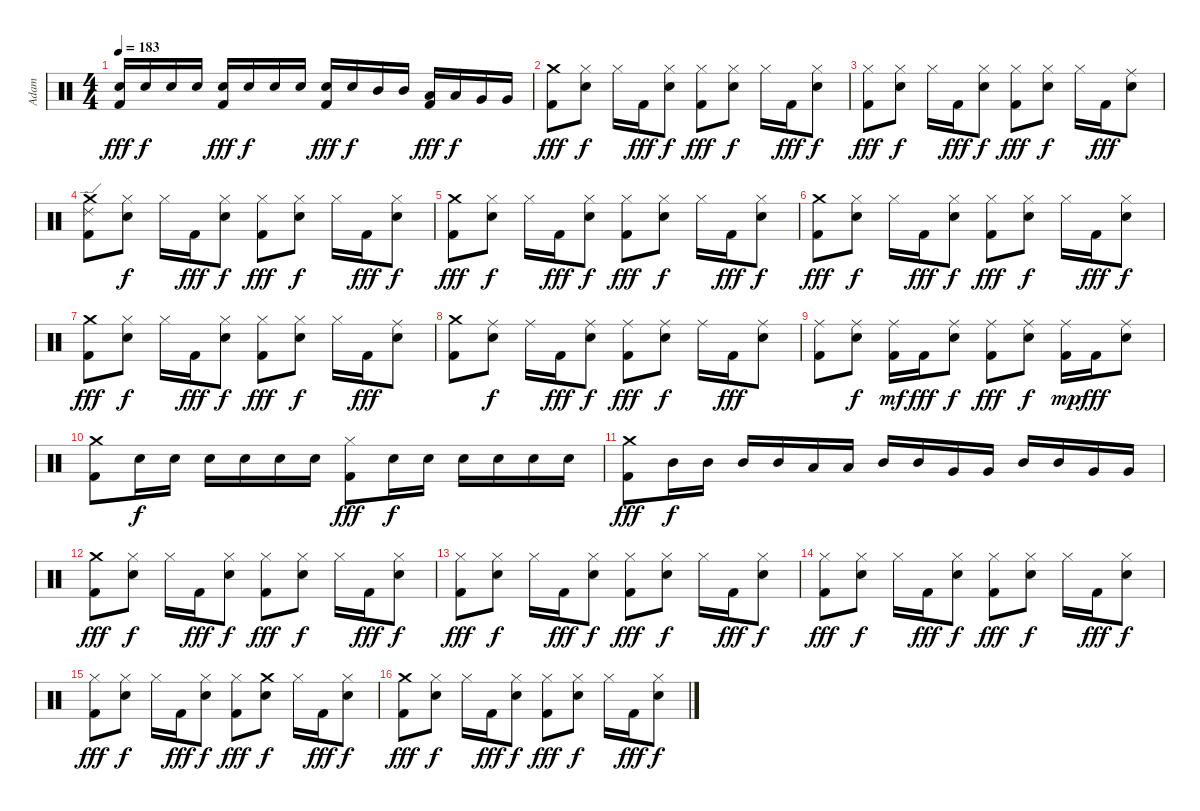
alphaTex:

\track ("Adam" "Adam") {instrument percussion}
\staff {score}
\articulation defaults
\ts (4 4)
\tempo 183
\clef neutral
\ks c
("Electric Snare (hit)" "Kick (hit) 2").16{dy fff} "Electric Snare (hit)".16{dy f} "Electric Snare (hit)".16 "Electric Snare (hit)".16 ("Electric Snare (hit)" "Kick (hit) 2").16{dy fff} "Electric Snare (hit)".16{dy f} "Electric Snare (hit)".16 "Electric Snare (hit)".16 ("Electric Snare (hit)" "Kick (hit) 2").16{dy fff} "Electric Snare (hit)".16{dy f} "Mid Tom (hit)".16 "Mid Tom (hit)".16 ("Low Tom (hit)" "Kick (hit) 2").16{dy fff} "Low Tom (hit)".16{dy f} "Very Low Tom (hit)".16 "Very Low Tom (hit)".16 |
("Crash medium (hit)" "Kick (hit) 2").8{dy fff} ("Hi-Hat (closed)" "Electric Snare (hit)").8{dy f} "Hi-Hat (closed)".16 "Kick (hit) 2".16{dy fff} ("Hi-Hat (closed)" "Electric Snare (hit)").8{dy f} ("Hi-Hat (closed)" "Kick (hit) 2").8{dy fff} ("Hi-Hat (closed)" "Electric Snare (hit)").8{dy f} "Hi-Hat (closed)".16 "Kick (hit) 2".16{dy fff} ("Hi-Hat (closed)" "Electric Snare (hit)").8{dy f} |
("Hi-Hat (closed)" "Kick (hit) 2").8{dy fff} ("Hi-Hat (closed)" "Electric Snare (hit)").8{dy f} "Hi-Hat (closed)".16 "Kick (hit) 2".16{dy fff} ("Hi-Hat (closed)" "Electric Snare (hit)").8{dy f} ("Hi-Hat (closed)" "Kick (hit) 2").8{dy fff} ("Hi-Hat (closed)" "Electric Snare (hit)").8{dy f} "Hi-Hat (closed)".16 "Kick (hit) 2".16{dy fff} ("Ride (middle)" "Electric Snare (hit)").8 |
("Ride (edge) 2" "Crash medium (hit)" "Kick (hit) 2").8 ("Hi-Hat (closed)" "Electric Snare (hit)").8{dy f} "Hi-Hat (closed)".16 "Kick (hit) 2".16{dy fff} ("Hi-Hat (closed)" "Electric Snare (hit)").8{dy f} ("Hi-Hat (closed)" "Kick (hit) 2").8{dy fff} ("Hi-Hat (closed)" "Electric Snare (hit)").8{dy f} "Hi-Hat (closed)".16 "Kick (hit) 2".16{dy fff} ("Hi-Hat (closed)" "Electric Snare (hit)").8{dy f} |
("Crash medium (hit)" "Kick (hit) 2").8{dy fff} ("Hi-Hat (closed)" "Electric Snare (hit)").8{dy f} "Hi-Hat (closed)".16 "Kick (hit) 2".16{dy fff} ("Hi-Hat (closed)" "Electric Snare (hit)").8{dy f} ("Hi-Hat (closed)" "Kick (hit) 2").8{dy fff} ("Hi-Hat (closed)" "Electric Snare (hit)").8{dy f} "Hi-Hat (closed)".16 "Kick (hit) 2".16{dy fff} ("Hi-Hat (closed)" "Electric Snare (hit)").8{dy f} |
("Crash medium (hit)" "Kick (hit) 2").8{dy fff} ("Hi-Hat (closed)" "Electric Snare (hit)").8{dy f} "Hi-Hat (closed)".16 "Kick (hit) 2".16{dy fff} ("Hi-Hat (closed)" "Electric Snare (hit)").8{dy f} ("Hi-Hat (closed)" "Kick (hit) 2").8{dy fff} ("Hi-Hat (closed)" "Electric Snare (hit)").8{dy f} "Hi-Hat (closed)".16 "Kick (hit) 2".16{dy fff} ("Hi-Hat (closed)" "Electric Snare (hit)").8{dy f} |
("Crash medium (hit)" "Kick (hit) 2").8{dy fff} ("Hi-Hat (closed)" "Electric Snare (hit)").8{dy f} "Hi-Hat (closed)".16 "Kick (hit) 2".16{dy fff} ("Hi-Hat (closed)" "Electric Snare (hit)").8{dy f} ("Hi-Hat (closed)" "Kick (hit) 2").8{dy fff} ("Hi-Hat (closed)" "Electric Snare (hit)").8{dy f} "Hi-Hat (closed)".16 "Kick (hit) 2".16{dy fff} ("Ride (middle)" "Electric Snare (hit)").8 |
("Crash medium (hit)" "Kick (hit) 2").8 ("Ride (middle)" "Electric Snare (hit)").8{dy f} "Ride (middle)".16 "Kick (hit) 2".16{dy fff} ("Ride (middle)" "Electric Snare (hit)").8{dy f} ("Ride (middle)" "Kick (hit) 2").8{dy fff} ("Ride (middle)" "Electric Snare (hit)").8{dy f} "Ride (middle)".16 "Kick (hit) 2".16{dy fff} ("Ride (middle)" "Electric Snare (hit)").8 |
("Ride (middle)" "Kick (hit) 2").8 ("Ride (middle)" "Electric Snare (hit)").8{dy f} ("Ride (middle)" "Kick (hit) 2").16{dy mf} "Kick (hit) 2".16{dy fff} ("Ride (middle)" "Electric Snare (hit)").8{dy f} ("Ride (middle)" "Kick (hit) 2").8{dy fff} ("Ride (middle)" "Electric Snare (hit)").8{dy f} ("Ride (middle)" "Kick (hit) 2").16{dy mp} "Kick (hit) 2".16{dy fff} ("Ride (middle)" "Electric Snare (hit)").8 |
("Crash medium (hit)" "Kick (hit) 2").8 "Electric Snare (hit)".16{dy f} "Electric Snare (hit)".16 "Electric Snare (hit)".16 "Electric Snare (hit)".16 "Electric Snare (hit)".16 "Electric Snare (hit)".16 ("Hi-Hat (closed)" "Kick (hit) 2").8{dy fff} "Electric Snare (hit)".16{dy f} "Electric Snare (hit)".16 "Electric Snare (hit)".16 "Electric Snare (hit)".16 "Electric Snare (hit)".16 "Electric Snare (hit)".16 |
("Crash medium (hit)" "Kick (hit) 2").8{dy fff} "Mid Tom (hit)".16{dy f} "Mid Tom (hit)".16 "Mid Tom (hit)".16 "Mid Tom (hit)".16 "Low Tom (hit)".16 "Low Tom (hit)".16 "Mid Tom (hit)".16 "Mid Tom (hit)".16 "Very Low Tom (hit)".16 "Very Low Tom (hit)".16 "Mid Tom (hit)".16 "Mid Tom (hit)".16 "Very Low Tom (hit)".16 "Very Low Tom (hit)".16 |
("Crash medium (hit)" "Kick (hit) 2").8{dy fff} ("Hi-Hat (closed)" "Electric Snare (hit)").8{dy f} "Hi-Hat (closed)".16 "Kick (hit) 2".16{dy fff} ("Hi-Hat (closed)" "Electric Snare (hit)").8{dy f} ("Hi-Hat (closed)" "Kick (hit) 2").8{dy fff} ("Hi-Hat (closed)" "Electric Snare (hit)").8{dy f} "Hi-Hat (closed)".16 "Kick (hit) 2".16{dy fff} ("Hi-Hat (closed)" "Electric Snare (hit)").8{dy f} |
("Hi-Hat (closed)" "Kick (hit) 2").8{dy fff} ("Hi-Hat (closed)" "Electric Snare (hit)").8{dy f} "Hi-Hat (closed)".16 "Kick (hit) 2".16{dy fff} ("Hi-Hat (closed)" "Electric Snare (hit)").8{dy f} ("Hi-Hat (closed)" "Kick (hit) 2").8{dy fff} ("Hi-Hat (closed)" "Electric Snare (hit)").8{dy f} "Hi-Hat (closed)".16 "Kick (hit) 2".16{dy fff} ("Hi-Hat (closed)" "Electric Snare (hit)").8{dy f} |
("Hi-Hat (closed)" "Kick (hit) 2").8{dy fff} ("Hi-Hat (closed)" "Electric Snare (hit)").8{dy f} "Hi-Hat (closed)".16 "Kick (hit) 2".16{dy fff} ("Hi-Hat (closed)" "Electric Snare (hit)").8{dy f} ("Hi-Hat (closed)" "Kick (hit) 2").8{dy fff} ("Hi-Hat (closed)" "Electric Snare (hit)").8{dy f} "Hi-Hat (closed)".16 "Kick (hit) 2".16{dy fff} ("Hi-Hat (closed)" "Electric Snare (hit)").8{dy f} |
("Hi-Hat (closed)" "Kick (hit) 2").8{dy fff} ("Hi-Hat (closed)" "Electric Snare (hit)").8{dy f} "Hi-Hat (closed)".16 "Kick (hit) 2".16{dy fff} ("Hi-Hat (closed)" "Electric Snare (hit)").8{dy f} ("Hi-Hat (closed)" "Kick (hit) 2").8{dy fff} ("Crash medium (hit)" "Electric Snare (hit)").8{dy f} "Hi-Hat (closed)".16 "Kick (hit) 2".16{dy fff} ("Hi-Hat (closed)" "Electric Snare (hit)").8{dy f} |
("Crash medium (hit)" "Kick (hit) 2").8{dy fff} ("Hi-Hat (closed)" "Electric Snare (hit)").8{dy f} "Hi-Hat (closed)".16 "Kick (hit) 2".16{dy fff} ("Hi-Hat (closed)" "Electric Snare (hit)").8{dy f} ("Hi-Hat (closed)" "Kick (hit) 2").8{dy fff} ("Hi-Hat (closed)" "Electric Snare (hit)").8{dy f} "Hi-Hat (closed)".16 "Kick (hit) 2".16{dy fff} ("Hi-Hat (closed)" "Electric Snare (hit)").8{dy f}
